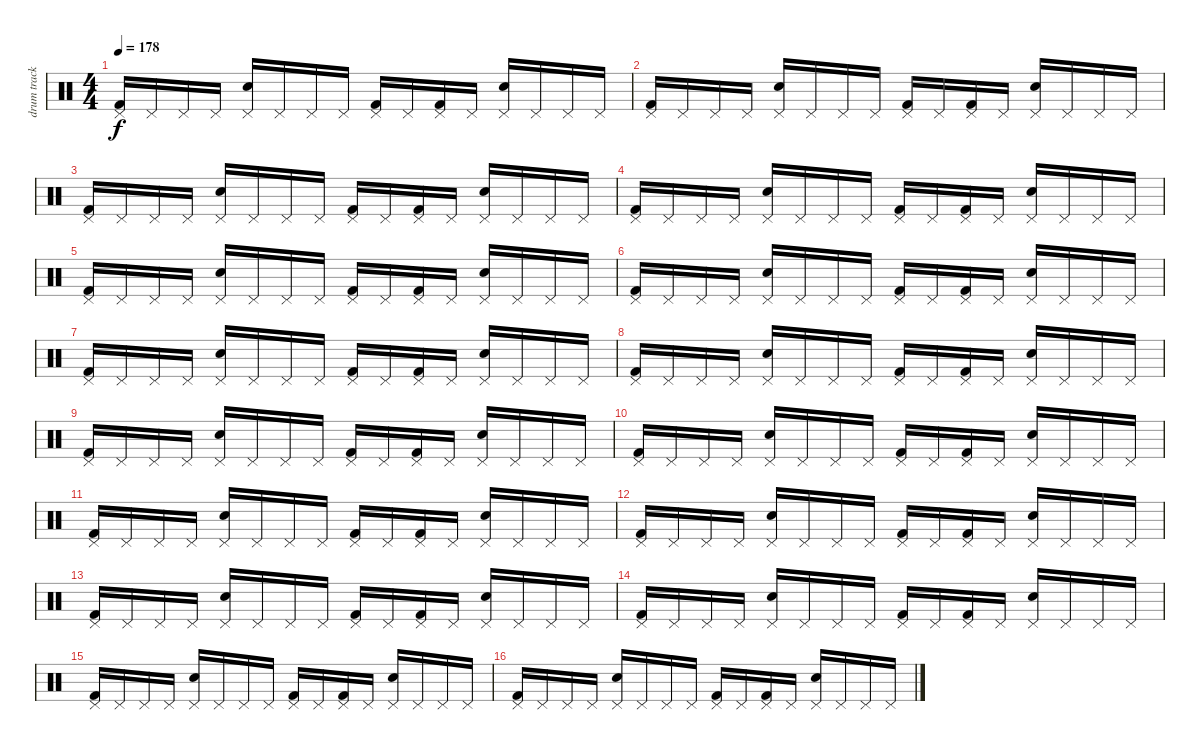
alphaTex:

\track ("drum track" "drum track") {instrument percussion}
\staff {score}
\articulation defaults
\ts (4 4)
\tempo 178
\clef neutral
\ks c
("Kick (hit) 2" "Pedal Hi-Hat (hit)").16{dy f} "Pedal Hi-Hat (hit)".16 "Pedal Hi-Hat (hit)".16 "Pedal Hi-Hat (hit)".16 ("Snare (hit) 2" "Pedal Hi-Hat (hit)").16 "Pedal Hi-Hat (hit)".16 "Pedal Hi-Hat (hit)".16 "Pedal Hi-Hat (hit)".16 ("Kick (hit) 2" "Pedal Hi-Hat (hit)").16 "Pedal Hi-Hat (hit)".16 ("Kick (hit) 2" "Pedal Hi-Hat (hit)").16 "Pedal Hi-Hat (hit)".16 ("Snare (hit) 2" "Pedal Hi-Hat (hit)").16 "Pedal Hi-Hat (hit)".16 "Pedal Hi-Hat (hit)".16 "Pedal Hi-Hat (hit)".16 |
("Kick (hit) 2" "Pedal Hi-Hat (hit)").16 "Pedal Hi-Hat (hit)".16 "Pedal Hi-Hat (hit)".16 "Pedal Hi-Hat (hit)".16 ("Snare (hit) 2" "Pedal Hi-Hat (hit)").16 "Pedal Hi-Hat (hit)".16 "Pedal Hi-Hat (hit)".16 "Pedal Hi-Hat (hit)".16 ("Kick (hit) 2" "Pedal Hi-Hat (hit)").16 "Pedal Hi-Hat (hit)".16 ("Kick (hit) 2" "Pedal Hi-Hat (hit)").16 "Pedal Hi-Hat (hit)".16 ("Snare (hit) 2" "Pedal Hi-Hat (hit)").16 "Pedal Hi-Hat (hit)".16 "Pedal Hi-Hat (hit)".16 "Pedal Hi-Hat (hit)".16 |
("Kick (hit) 2" "Pedal Hi-Hat (hit)").16 "Pedal Hi-Hat (hit)".16 "Pedal Hi-Hat (hit)".16 "Pedal Hi-Hat (hit)".16 ("Snare (hit) 2" "Pedal Hi-Hat (hit)").16 "Pedal Hi-Hat (hit)".16 "Pedal Hi-Hat (hit)".16 "Pedal Hi-Hat (hit)".16 ("Kick (hit) 2" "Pedal Hi-Hat (hit)").16 "Pedal Hi-Hat (hit)".16 ("Kick (hit) 2" "Pedal Hi-Hat (hit)").16 "Pedal Hi-Hat (hit)".16 ("Snare (hit) 2" "Pedal Hi-Hat (hit)").16 "Pedal Hi-Hat (hit)".16 "Pedal Hi-Hat (hit)".16 "Pedal Hi-Hat (hit)".16 |
("Kick (hit) 2" "Pedal Hi-Hat (hit)").16 "Pedal Hi-Hat (hit)".16 "Pedal Hi-Hat (hit)".16 "Pedal Hi-Hat (hit)".16 ("Snare (hit) 2" "Pedal Hi-Hat (hit)").16 "Pedal Hi-Hat (hit)".16 "Pedal Hi-Hat (hit)".16 "Pedal Hi-Hat (hit)".16 ("Kick (hit) 2" "Pedal Hi-Hat (hit)").16 "Pedal Hi-Hat (hit)".16 ("Kick (hit) 2" "Pedal Hi-Hat (hit)").16 "Pedal Hi-Hat (hit)".16 ("Snare (hit) 2" "Pedal Hi-Hat (hit)").16 "Pedal Hi-Hat (hit)".16 "Pedal Hi-Hat (hit)".16 "Pedal Hi-Hat (hit)".16 |
("Kick (hit) 2" "Pedal Hi-Hat (hit)").16 "Pedal Hi-Hat (hit)".16 "Pedal Hi-Hat (hit)".16 "Pedal Hi-Hat (hit)".16 ("Snare (hit) 2" "Pedal Hi-Hat (hit)").16 "Pedal Hi-Hat (hit)".16 "Pedal Hi-Hat (hit)".16 "Pedal Hi-Hat (hit)".16 ("Kick (hit) 2" "Pedal Hi-Hat (hit)").16 "Pedal Hi-Hat (hit)".16 ("Kick (hit) 2" "Pedal Hi-Hat (hit)").16 "Pedal Hi-Hat (hit)".16 ("Snare (hit) 2" "Pedal Hi-Hat (hit)").16 "Pedal Hi-Hat (hit)".16 "Pedal Hi-Hat (hit)".16 "Pedal Hi-Hat (hit)".16 |
("Kick (hit) 2" "Pedal Hi-Hat (hit)").16 "Pedal Hi-Hat (hit)".16 "Pedal Hi-Hat (hit)".16 "Pedal Hi-Hat (hit)".16 ("Snare (hit) 2" "Pedal Hi-Hat (hit)").16 "Pedal Hi-Hat (hit)".16 "Pedal Hi-Hat (hit)".16 "Pedal Hi-Hat (hit)".16 ("Kick (hit) 2" "Pedal Hi-Hat (hit)").16 "Pedal Hi-Hat (hit)".16 ("Kick (hit) 2" "Pedal Hi-Hat (hit)").16 "Pedal Hi-Hat (hit)".16 ("Snare (hit) 2" "Pedal Hi-Hat (hit)").16 "Pedal Hi-Hat (hit)".16 "Pedal Hi-Hat (hit)".16 "Pedal Hi-Hat (hit)".16 |
("Kick (hit) 2" "Pedal Hi-Hat (hit)").16 "Pedal Hi-Hat (hit)".16 "Pedal Hi-Hat (hit)".16 "Pedal Hi-Hat (hit)".16 ("Snare (hit) 2" "Pedal Hi-Hat (hit)").16 "Pedal Hi-Hat (hit)".16 "Pedal Hi-Hat (hit)".16 "Pedal Hi-Hat (hit)".16 ("Kick (hit) 2" "Pedal Hi-Hat (hit)").16 "Pedal Hi-Hat (hit)".16 ("Kick (hit) 2" "Pedal Hi-Hat (hit)").16 "Pedal Hi-Hat (hit)".16 ("Snare (hit) 2" "Pedal Hi-Hat (hit)").16 "Pedal Hi-Hat (hit)".16 "Pedal Hi-Hat (hit)".16 "Pedal Hi-Hat (hit)".16 |
("Kick (hit) 2" "Pedal Hi-Hat (hit)").16 "Pedal Hi-Hat (hit)".16 "Pedal Hi-Hat (hit)".16 "Pedal Hi-Hat (hit)".16 ("Snare (hit) 2" "Pedal Hi-Hat (hit)").16 "Pedal Hi-Hat (hit)".16 "Pedal Hi-Hat (hit)".16 "Pedal Hi-Hat (hit)".16 ("Kick (hit) 2" "Pedal Hi-Hat (hit)").16 "Pedal Hi-Hat (hit)".16 ("Kick (hit) 2" "Pedal Hi-Hat (hit)").16 "Pedal Hi-Hat (hit)".16 ("Snare (hit) 2" "Pedal Hi-Hat (hit)").16 "Pedal Hi-Hat (hit)".16 "Pedal Hi-Hat (hit)".16 "Pedal Hi-Hat (hit)".16 |
("Kick (hit) 2" "Pedal Hi-Hat (hit)").16 "Pedal Hi-Hat (hit)".16 "Pedal Hi-Hat (hit)".16 "Pedal Hi-Hat (hit)".16 ("Snare (hit) 2" "Pedal Hi-Hat (hit)").16 "Pedal Hi-Hat (hit)".16 "Pedal Hi-Hat (hit)".16 "Pedal Hi-Hat (hit)".16 ("Kick (hit) 2" "Pedal Hi-Hat (hit)").16 "Pedal Hi-Hat (hit)".16 ("Kick (hit) 2" "Pedal Hi-Hat (hit)").16 "Pedal Hi-Hat (hit)".16 ("Snare (hit) 2" "Pedal Hi-Hat (hit)").16 "Pedal Hi-Hat (hit)".16 "Pedal Hi-Hat (hit)".16 "Pedal Hi-Hat (hit)".16 |
("Kick (hit) 2" "Pedal Hi-Hat (hit)").16 "Pedal Hi-Hat (hit)".16 "Pedal Hi-Hat (hit)".16 "Pedal Hi-Hat (hit)".16 ("Snare (hit) 2" "Pedal Hi-Hat (hit)").16 "Pedal Hi-Hat (hit)".16 "Pedal Hi-Hat (hit)".16 "Pedal Hi-Hat (hit)".16 ("Kick (hit) 2" "Pedal Hi-Hat (hit)").16 "Pedal Hi-Hat (hit)".16 ("Kick (hit) 2" "Pedal Hi-Hat (hit)").16 "Pedal Hi-Hat (hit)".16 ("Snare (hit) 2" "Pedal Hi-Hat (hit)").16 "Pedal Hi-Hat (hit)".16 "Pedal Hi-Hat (hit)".16 "Pedal Hi-Hat (hit)".16 |
("Kick (hit) 2" "Pedal Hi-Hat (hit)").16 "Pedal Hi-Hat (hit)".16 "Pedal Hi-Hat (hit)".16 "Pedal Hi-Hat (hit)".16 ("Snare (hit) 2" "Pedal Hi-Hat (hit)").16 "Pedal Hi-Hat (hit)".16 "Pedal Hi-Hat (hit)".16 "Pedal Hi-Hat (hit)".16 ("Kick (hit) 2" "Pedal Hi-Hat (hit)").16 "Pedal Hi-Hat (hit)".16 ("Kick (hit) 2" "Pedal Hi-Hat (hit)").16 "Pedal Hi-Hat (hit)".16 ("Snare (hit) 2" "Pedal Hi-Hat (hit)").16 "Pedal Hi-Hat (hit)".16 "Pedal Hi-Hat (hit)".16 "Pedal Hi-Hat (hit)".16 |
("Kick (hit) 2" "Pedal Hi-Hat (hit)").16 "Pedal Hi-Hat (hit)".16 "Pedal Hi-Hat (hit)".16 "Pedal Hi-Hat (hit)".16 ("Snare (hit) 2" "Pedal Hi-Hat (hit)").16 "Pedal Hi-Hat (hit)".16 "Pedal Hi-Hat (hit)".16 "Pedal Hi-Hat (hit)".16 ("Kick (hit) 2" "Pedal Hi-Hat (hit)").16 "Pedal Hi-Hat (hit)".16 ("Kick (hit) 2" "Pedal Hi-Hat (hit)").16 "Pedal Hi-Hat (hit)".16 ("Snare (hit) 2" "Pedal Hi-Hat (hit)").16 "Pedal Hi-Hat (hit)".16 "Pedal Hi-Hat (hit)".16 "Pedal Hi-Hat (hit)".16 |
("Kick (hit) 2" "Pedal Hi-Hat (hit)").16 "Pedal Hi-Hat (hit)".16 "Pedal Hi-Hat (hit)".16 "Pedal Hi-Hat (hit)".16 ("Snare (hit) 2" "Pedal Hi-Hat (hit)").16 "Pedal Hi-Hat (hit)".16 "Pedal Hi-Hat (hit)".16 "Pedal Hi-Hat (hit)".16 ("Kick (hit) 2" "Pedal Hi-Hat (hit)").16 "Pedal Hi-Hat (hit)".16 ("Kick (hit) 2" "Pedal Hi-Hat (hit)").16 "Pedal Hi-Hat (hit)".16 ("Snare (hit) 2" "Pedal Hi-Hat (hit)").16 "Pedal Hi-Hat (hit)".16 "Pedal Hi-Hat (hit)".16 "Pedal Hi-Hat (hit)".16 |
("Kick (hit) 2" "Pedal Hi-Hat (hit)").16 "Pedal Hi-Hat (hit)".16 "Pedal Hi-Hat (hit)".16 "Pedal Hi-Hat (hit)".16 ("Snare (hit) 2" "Pedal Hi-Hat (hit)").16 "Pedal Hi-Hat (hit)".16 "Pedal Hi-Hat (hit)".16 "Pedal Hi-Hat (hit)".16 ("Kick (hit) 2" "Pedal Hi-Hat (hit)").16 "Pedal Hi-Hat (hit)".16 ("Kick (hit) 2" "Pedal Hi-Hat (hit)").16 "Pedal Hi-Hat (hit)".16 ("Snare (hit) 2" "Pedal Hi-Hat (hit)").16 "Pedal Hi-Hat (hit)".16 "Pedal Hi-Hat (hit)".16 "Pedal Hi-Hat (hit)".16 |
("Kick (hit) 2" "Pedal Hi-Hat (hit)").16 "Pedal Hi-Hat (hit)".16 "Pedal Hi-Hat (hit)".16 "Pedal Hi-Hat (hit)".16 ("Snare (hit) 2" "Pedal Hi-Hat (hit)").16 "Pedal Hi-Hat (hit)".16 "Pedal Hi-Hat (hit)".16 "Pedal Hi-Hat (hit)".16 ("Kick (hit) 2" "Pedal Hi-Hat (hit)").16 "Pedal Hi-Hat (hit)".16 ("Kick (hit) 2" "Pedal Hi-Hat (hit)").16 "Pedal Hi-Hat (hit)".16 ("Snare (hit) 2" "Pedal Hi-Hat (hit)").16 "Pedal Hi-Hat (hit)".16 "Pedal Hi-Hat (hit)".16 "Pedal Hi-Hat (hit)".16 |
("Kick (hit) 2" "Pedal Hi-Hat (hit)").16 "Pedal Hi-Hat (hit)".16 "Pedal Hi-Hat (hit)".16 "Pedal Hi-Hat (hit)".16 ("Snare (hit) 2" "Pedal Hi-Hat (hit)").16 "Pedal Hi-Hat (hit)".16 "Pedal Hi-Hat (hit)".16 "Pedal Hi-Hat (hit)".16 ("Kick (hit) 2" "Pedal Hi-Hat (hit)").16 "Pedal Hi-Hat (hit)".16 ("Kick (hit) 2" "Pedal Hi-Hat (hit)").16 "Pedal Hi-Hat (hit)".16 ("Snare (hit) 2" "Pedal Hi-Hat (hit)").16 "Pedal Hi-Hat (hit)".16 "Pedal Hi-Hat (hit)".16 "Pedal Hi-Hat (hit)".16
